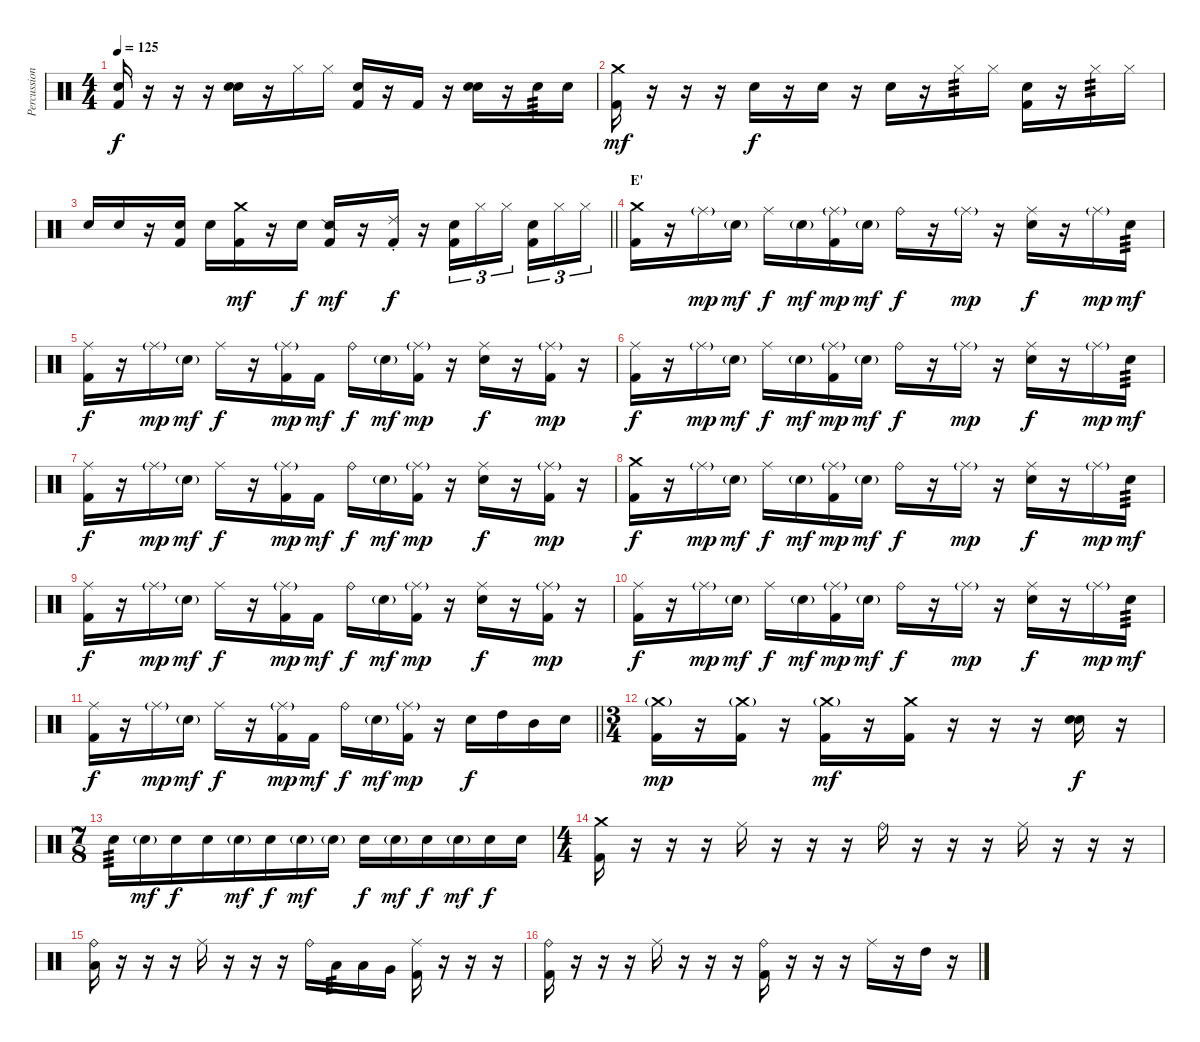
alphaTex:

\track ("Percussion" "Percussion") {instrument percussion}
\staff {score}
\articulation defaults
\ts (4 4)
\tempo 125
\clef neutral
\ks c
("Snare (hit)" "Kick (hit) 2").16{dy f} r.16 r.16 r.16 ("Snare (hit)" "Snare (hit) 2").16 r.16 "Hi-Hat (closed)".16 "Hi-Hat (closed)".16 ("Snare (hit)" "Kick (hit) 2").16 r.16 "Kick (hit) 2".16 r.16 ("Snare (hit)" "Snare (hit) 2").16 r.16 "Snare (hit) 2".16{tp 3} "Snare (hit) 2".16 |
("Crash medium (hit)" "Kick (hit) 2").16{dy mf} r.16 r.16 r.16 "Snare (hit)".16{dy f} r.16 "Snare (hit) 2".16 r.16 "Snare (hit)".16 r.16 "Hi-Hat (closed)".16{tp 3} "Hi-Hat (closed)".16 ("Snare (hit)" "Kick (hit) 2").16 r.16 "Hi-Hat (closed)".16{tp 3} "Hi-Hat (closed)".16 |
\barLineRight lightlight "Snare (hit)".16 "Snare (hit)".16
r.16 ("Snare (hit)" "Kick (hit) 2").16 "Snare (hit) 2".16 ("Crash medium (hit)" "Kick (hit) 2").16{dy mf} r.16 "Snare (hit) 2".16{dy f} ("Snare (side stick) 2" "Kick (hit) 2").16{dy mf} r.16 ("Ride (choke) 2" "Kick (hit) 2").16{dy f} r.16 ("Snare (hit)" "Kick (hit) 2").16{tu (3 2)} "Hi-Hat (closed)".16{tu (3 2)} "Hi-Hat (closed)".16{tu (3 2) beam splitsecondary} ("Snare (hit)" "Kick (hit) 2").16{tu (3 2)} "Hi-Hat (closed)".16{tu (3 2)} "Hi-Hat (closed)".16{tu (3 2)} |
\section ("" "E'")
("Crash medium (hit)" "Kick (hit) 2").16 r.16 "Ride (middle)"{g}.16{dy mp} "Snare (hit) 2"{g}.16{dy mf} "Ride (middle)".16{dy f} "Snare (hit) 2"{g}.16{dy mf} ("Ride (middle)"{g} "Kick (hit) 2").16{dy mp} "Snare (hit) 2"{g}.16{dy mf} "Ride (bell)".16{dy f} r.16 "Ride (middle)"{g}.16{dy mp} r.16 ("Ride (middle)" "Snare (hit) 2").16{dy f} r.16 "Ride (middle)"{g}.16{dy mp} "Snare (hit) 2".16{tp 3 dy mf} |
("Ride (middle)" "Kick (hit) 2").16{dy f} r.16 "Ride (middle)"{g}.16{dy mp} "Snare (hit) 2"{g}.16{dy mf} "Ride (middle)".16{dy f} r.16 ("Ride (middle)"{g} "Kick (hit) 2").16{dy mp} "Kick (hit) 2".16{dy mf} "Ride (bell)".16{dy f} "Snare (hit) 2"{g}.16{dy mf} ("Ride (middle)"{g} "Kick (hit) 2").16{dy mp} r.16 ("Ride (middle)" "Snare (hit) 2").16{dy f} r.16 ("Ride (middle)"{g} "Kick (hit) 2").16{dy mp} r.16 |
("Ride (middle)" "Kick (hit) 2").16{dy f} r.16 "Ride (middle)"{g}.16{dy mp} "Snare (hit) 2"{g}.16{dy mf} "Ride (middle)".16{dy f} "Snare (hit) 2"{g}.16{dy mf} ("Ride (middle)"{g} "Kick (hit) 2").16{dy mp} "Snare (hit) 2"{g}.16{dy mf} "Ride (bell)".16{dy f} r.16 "Ride (middle)"{g}.16{dy mp} r.16 ("Ride (middle)" "Snare (hit) 2").16{dy f} r.16 "Ride (middle)"{g}.16{dy mp} "Snare (hit) 2".16{tp 3 dy mf} |
("Ride (middle)" "Kick (hit) 2").16{dy f} r.16 "Ride (middle)"{g}.16{dy mp} "Snare (hit) 2"{g}.16{dy mf} "Ride (middle)".16{dy f} r.16 ("Ride (middle)"{g} "Kick (hit) 2").16{dy mp} "Kick (hit) 2".16{dy mf} "Ride (bell)".16{dy f} "Snare (hit) 2"{g}.16{dy mf} ("Ride (middle)"{g} "Kick (hit) 2").16{dy mp} r.16 ("Ride (middle)" "Snare (hit) 2").16{dy f} r.16 ("Ride (middle)"{g} "Kick (hit) 2").16{dy mp} r.16 |
("Crash medium (hit)" "Kick (hit) 2").16{dy f} r.16 "Ride (middle)"{g}.16{dy mp} "Snare (hit) 2"{g}.16{dy mf} "Ride (middle)".16{dy f} "Snare (hit) 2"{g}.16{dy mf} ("Ride (middle)"{g} "Kick (hit) 2").16{dy mp} "Snare (hit) 2"{g}.16{dy mf} "Ride (bell)".16{dy f} r.16 "Ride (middle)"{g}.16{dy mp} r.16 ("Ride (middle)" "Snare (hit) 2").16{dy f} r.16 "Ride (middle)"{g}.16{dy mp} "Snare (hit) 2".16{tp 3 dy mf} |
("Ride (middle)" "Kick (hit) 2").16{dy f} r.16 "Ride (middle)"{g}.16{dy mp} "Snare (hit) 2"{g}.16{dy mf} "Ride (middle)".16{dy f} r.16 ("Ride (middle)"{g} "Kick (hit) 2").16{dy mp} "Kick (hit) 2".16{dy mf} "Ride (bell)".16{dy f} "Snare (hit) 2"{g}.16{dy mf} ("Ride (middle)"{g} "Kick (hit) 2").16{dy mp} r.16 ("Ride (middle)" "Snare (hit) 2").16{dy f} r.16 ("Ride (middle)"{g} "Kick (hit) 2").16{dy mp} r.16 |
("Ride (middle)" "Kick (hit) 2").16{dy f} r.16 "Ride (middle)"{g}.16{dy mp} "Snare (hit) 2"{g}.16{dy mf} "Ride (middle)".16{dy f} "Snare (hit) 2"{g}.16{dy mf} ("Ride (middle)"{g} "Kick (hit) 2").16{dy mp} "Snare (hit) 2"{g}.16{dy mf} "Ride (bell)".16{dy f} r.16 "Ride (middle)"{g}.16{dy mp} r.16 ("Ride (middle)" "Snare (hit) 2").16{dy f} r.16 "Ride (middle)"{g}.16{dy mp} "Snare (hit) 2".16{tp 3 dy mf} |
\barLineRight lightlight
("Ride (middle)" "Kick (hit) 2").16{dy f} r.16 "Ride (middle)"{g}.16{dy mp} "Snare (hit) 2"{g}.16{dy mf} "Ride (middle)".16{dy f} r.16 ("Ride (middle)"{g} "Kick (hit) 2").16{dy mp} "Kick (hit) 2".16{dy mf} "Ride (bell)".16{dy f} "Snare (hit) 2"{g}.16{dy mf} ("Ride (middle)"{g} "Kick (hit) 2").16{dy mp} r.16 "Snare (hit) 2".16{dy f} "High Tom (hit)".16 "Mid Tom (hit)".16 "Snare (hit) 2".16 |
\ts (3 4)
("Crash medium (hit)"{g} "Kick (hit) 2").16{dy mp} r.16 ("Crash medium (hit)"{g} "Kick (hit) 2").16 r.16 ("Crash medium (hit)"{g} "Kick (hit) 2").16{dy mf} r.16 ("Crash medium (hit)" "Kick (hit) 2").16 r.16 r.16 r.16 ("Snare (hit)" "Snare (hit) 2").16{dy f} r.16 |
\ts (7 8)
"Snare (hit) 2".16{tp 3} "Snare (hit) 2"{g}.16{dy mf} "Snare (hit) 2".16{dy f} "Snare (hit) 2".16 "Snare (hit) 2"{g}.16{dy mf} "Snare (hit) 2".16{dy f} "Snare (hit) 2"{g}.16{dy mf} "Snare (hit) 2"{g}.16 "Snare (hit) 2".16{dy f} "Snare (hit) 2"{g}.16{dy mf} "Snare (hit) 2".16{dy f} "Snare (hit) 2"{g}.16{dy mf} "Snare (hit) 2".16{dy f} "Snare (hit) 2".16 |
\ts (4 4)
("Crash medium (hit)" "Kick (hit) 2").16 r.16 r.16 r.16 "Ride (middle)".16 r.16 r.16 r.16 "Ride (bell)".16 r.16 r.16 r.16 "Ride (middle)".16 r.16 r.16 r.16 |
("Ride (bell)" "Low Tom (hit)").16 r.16 r.16 r.16 "Ride (middle)".16 r.16 r.16 r.16 "Ride (bell)".16 "Low Tom (hit)".16{tp 3} "Low Tom (hit)".16 "Very Low Tom (hit)".16 ("Ride (middle)" "Kick (hit) 2").16 r.16 r.16 r.16 |
("Ride (bell)" "Kick (hit) 2").16 r.16 r.16 r.16 "Ride (middle)".16 r.16 r.16 r.16 ("Ride (bell)" "Kick (hit) 2").16 r.16 r.16 r.16 "Ride (middle)".16 r.16 "High Tom (hit)".16 r.16
